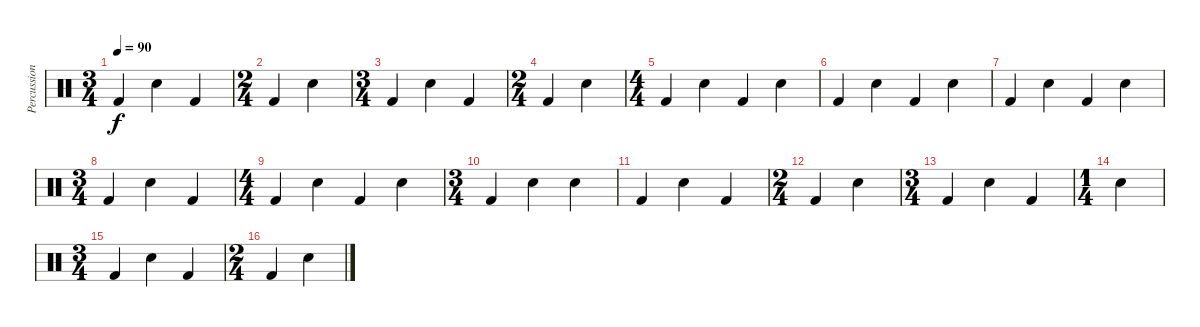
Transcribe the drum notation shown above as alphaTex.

\track ("Percussion" "Percussion") {instrument percussion}
\staff {score}
\articulation defaults
\ts (3 4)
\tempo 90
\clef neutral
\ks c "Kick (hit) 2".4{dy f} "Snare (hit) 2".4 "Kick (hit) 2".4
|
\ts (2 4)
"Kick (hit) 2".4 "Snare (hit) 2".4 |
\ts (3 4)
"Kick (hit) 2".4 "Snare (hit) 2".4 "Kick (hit) 2".4 |
\ts (2 4)
"Kick (hit) 2".4 "Snare (hit) 2".4 |
\ts (4 4)
"Kick (hit) 2".4 "Snare (hit) 2".4 "Kick (hit) 2".4 "Snare (hit) 2".4 |
"Kick (hit) 2".4 "Snare (hit) 2".4 "Kick (hit) 2".4 "Snare (hit) 2".4 |
"Kick (hit) 2".4 "Snare (hit) 2".4 "Kick (hit) 2".4 "Snare (hit) 2".4 |
\ts (3 4)
"Kick (hit) 2".4 "Snare (hit) 2".4 "Kick (hit) 2".4 |
\ts (4 4)
"Kick (hit) 2".4 "Snare (hit) 2".4 "Kick (hit) 2".4 "Snare (hit) 2".4 |
\ts (3 4)
"Kick (hit) 2".4 "Snare (hit) 2".4 "Snare (hit) 2".4 |
"Kick (hit) 2".4 "Snare (hit) 2".4 "Kick (hit) 2".4 |
\ts (2 4)
"Kick (hit) 2".4 "Snare (hit) 2".4 |
\ts (3 4)
"Kick (hit) 2".4 "Snare (hit) 2".4 "Kick (hit) 2".4 |
\ts (1 4)
"Snare (hit) 2".4 |
\ts (3 4)
"Kick (hit) 2".4 "Snare (hit) 2".4 "Kick (hit) 2".4 |
\ts (2 4)
"Kick (hit) 2".4 "Snare (hit) 2".4
